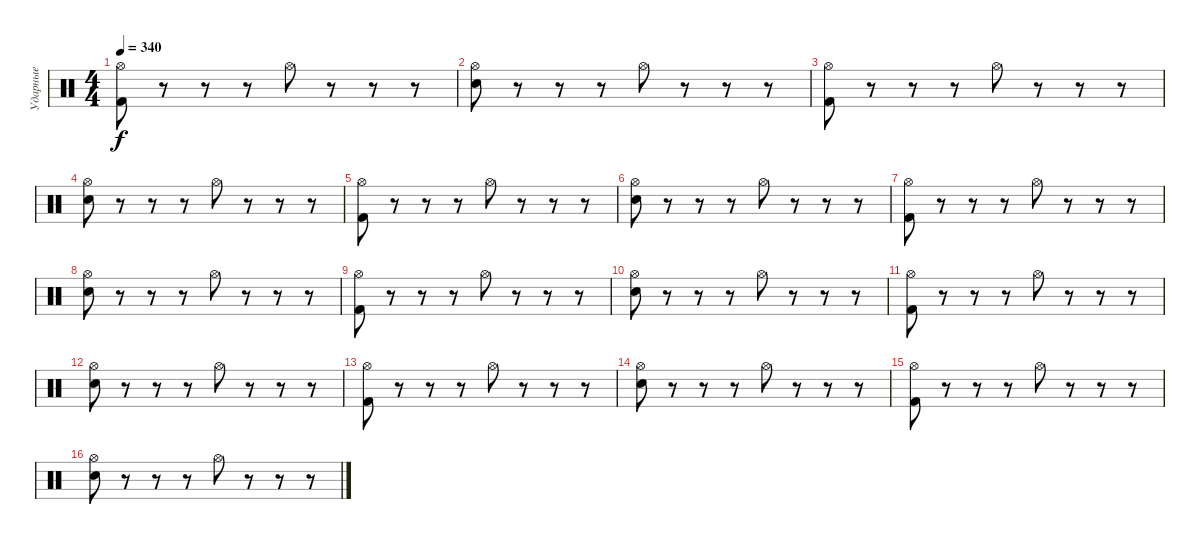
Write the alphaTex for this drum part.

\track ("Ударные" "Ударные") {instrument percussion}
\staff {score}
\articulation defaults
\ts (4 4)
\tempo 340
\clef neutral
\ks c
("Kick (hit) 2" "Hi-Hat (open)").8{dy f} r.8 r.8 r.8 "Hi-Hat (open)".8 r.8 r.8 r.8 |
("Electric Snare (hit)" "Hi-Hat (open)").8 r.8 r.8 r.8 "Hi-Hat (open)".8 r.8 r.8 r.8 |
("Kick (hit) 2" "Hi-Hat (open)").8 r.8 r.8 r.8 "Hi-Hat (open)".8 r.8 r.8 r.8 |
("Electric Snare (hit)" "Hi-Hat (open)").8 r.8 r.8 r.8 "Hi-Hat (open)".8 r.8 r.8 r.8 |
("Kick (hit) 2" "Hi-Hat (open)").8 r.8 r.8 r.8 "Hi-Hat (open)".8 r.8 r.8 r.8 |
("Electric Snare (hit)" "Hi-Hat (open)").8 r.8 r.8 r.8 "Hi-Hat (open)".8 r.8 r.8 r.8 |
("Kick (hit) 2" "Hi-Hat (open)").8 r.8 r.8 r.8 "Hi-Hat (open)".8 r.8 r.8 r.8 |
("Electric Snare (hit)" "Hi-Hat (open)").8 r.8 r.8 r.8 "Hi-Hat (open)".8 r.8 r.8 r.8 |
("Kick (hit) 2" "Hi-Hat (open)").8 r.8 r.8 r.8 "Hi-Hat (open)".8 r.8 r.8 r.8 |
("Electric Snare (hit)" "Hi-Hat (open)").8 r.8 r.8 r.8 "Hi-Hat (open)".8 r.8 r.8 r.8 |
("Kick (hit) 2" "Hi-Hat (open)").8 r.8 r.8 r.8 "Hi-Hat (open)".8 r.8 r.8 r.8 |
("Electric Snare (hit)" "Hi-Hat (open)").8 r.8 r.8 r.8 "Hi-Hat (open)".8 r.8 r.8 r.8 |
("Kick (hit) 2" "Hi-Hat (open)").8 r.8 r.8 r.8 "Hi-Hat (open)".8 r.8 r.8 r.8 |
("Electric Snare (hit)" "Hi-Hat (open)").8 r.8 r.8 r.8 "Hi-Hat (open)".8 r.8 r.8 r.8 |
("Kick (hit) 2" "Hi-Hat (open)").8 r.8 r.8 r.8 "Hi-Hat (open)".8 r.8 r.8 r.8 |
("Electric Snare (hit)" "Hi-Hat (open)").8 r.8 r.8 r.8 "Hi-Hat (open)".8 r.8 r.8 r.8
